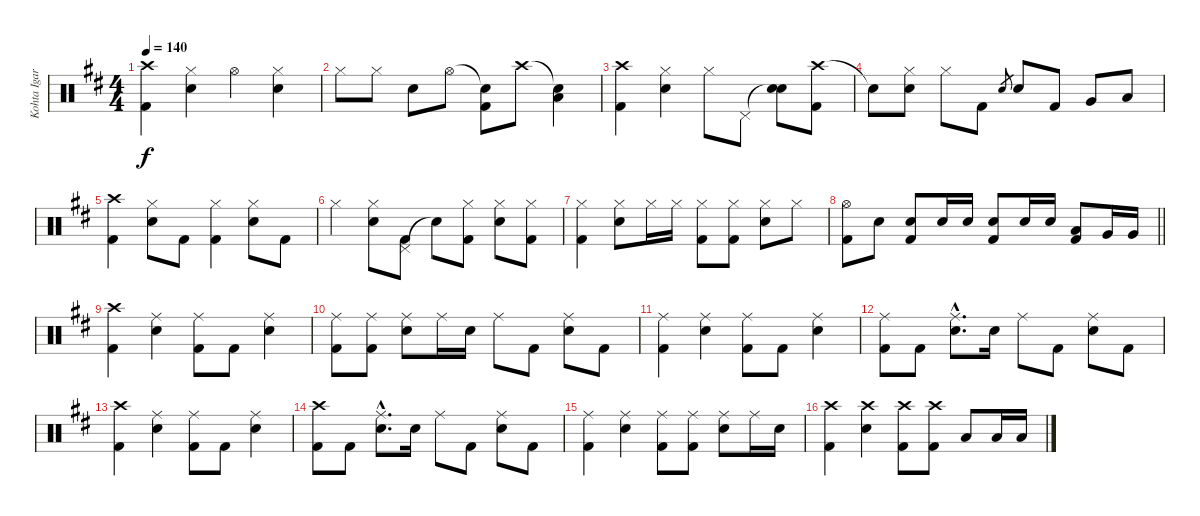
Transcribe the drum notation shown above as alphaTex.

\track ("Kohta Igarashi" "Kohta Igar") {instrument percussion}
\staff {score}
\articulation defaults
\ts (4 4)
\tempo 140
\clef neutral
\ks d
("Crash high (hit)" "Kick (hit) 2").4{dy f} ("Hi-Hat (closed)" "Electric Snare (hit)").4 "Hi-Hat (open)".4 ("Hi-Hat (closed)" "Electric Snare (hit)").4 |
"Hi-Hat (closed)".8 "Hi-Hat (closed)".8 "Electric Snare (hit)".8 "Hi-Hat (open)".8 ("Snare (hit)"{t} "Kick (hit) 2").8 "Crash high (hit)".8 ("Snare (hit)"{t} "Low Floor Tom (hit)").4 |
("Crash high (hit)" "Kick (hit) 2").4 ("Hi-Hat (closed)" "Electric Snare (hit)").4 "Hi-Hat (closed)".8 "Pedal Hi-Hat (hit)".8 ("Snare (hit)"{t} "Electric Snare (hit)").8 ("Crash high (hit)" "Kick (hit) 2").8 |
"Snare (hit)"{t}.8 ("Hi-Hat (closed)" "Electric Snare (hit)").8 "Hi-Hat (closed)".8 "Kick (hit) 2".8 "Electric Snare (hit)".8{gr} "Electric Snare (hit)".8 "Kick (hit) 2".8 "Very Low Tom (hit)".8 "Low Floor Tom (hit)".8 |
("Crash high (hit)" "Kick (hit) 2").4 ("Hi-Hat (closed)" "Electric Snare (hit)").8 "Kick (hit) 2".8 ("Hi-Hat (closed)" "Kick (hit) 2").4 ("Hi-Hat (closed)" "Electric Snare (hit)").8 "Kick (hit) 2".8 |
"Hi-Hat (closed)".4 ("Hi-Hat (closed)" "Electric Snare (hit)").8 ("Pedal Hi-Hat (hit)" "Kick (hit) 2").8 "Snare (hit)"{t}.8 ("Hi-Hat (closed)" "Kick (hit) 2").8 ("Hi-Hat (closed)" "Electric Snare (hit)").8 ("Hi-Hat (closed)" "Kick (hit) 2").8 |
("Hi-Hat (closed)" "Kick (hit) 2").4 ("Hi-Hat (closed)" "Electric Snare (hit)").8 "Hi-Hat (closed)".16 "Hi-Hat (closed)".16 ("Hi-Hat (closed)" "Kick (hit) 2").8 ("Hi-Hat (closed)" "Kick (hit) 2").8 ("Hi-Hat (closed)" "Electric Snare (hit)").8 "Hi-Hat (closed)".8 |
\barLineRight lightlight
("Hi-Hat (open)" "Kick (hit) 2").8 "Electric Snare (hit)".8 ("Electric Snare (hit)" "Kick (hit) 2").8 "Electric Snare (hit)".16 "Electric Snare (hit)".16 ("Electric Snare (hit)" "Kick (hit) 2").8 "Electric Snare (hit)".16 "Electric Snare (hit)".16 ("Low Tom (hit)" "Kick (hit) 2").8 "Very Low Tom (hit)".16 "Very Low Tom (hit)".16 |
("Crash high (hit)" "Kick (hit) 2").4 ("Ride (middle)" "Electric Snare (hit)").4 ("Ride (middle)" "Kick (hit) 2").8 "Kick (hit) 2".8 ("Ride (middle)" "Electric Snare (hit)").4 |
("Ride (middle)" "Kick (hit) 2").8 ("Ride (middle)" "Kick (hit) 2").8 ("Ride (middle)" "Electric Snare (hit)").8 "Ride (middle)".16 "Electric Snare (hit)".16 "Ride (middle)".8 "Kick (hit) 2".8 ("Ride (middle)" "Electric Snare (hit)").8 "Kick (hit) 2".8 |
("Ride (middle)" "Kick (hit) 2").4 ("Ride (middle)" "Electric Snare (hit)").4 ("Ride (middle)" "Kick (hit) 2").8 "Kick (hit) 2".8 ("Ride (middle)" "Electric Snare (hit)").4 |
("Ride (middle)" "Kick (hit) 2").8 "Kick (hit) 2".8 ("Ride (middle)"{hac} "Electric Snare (hit)"{hac}).8{d} "Electric Snare (hit)".16 "Ride (middle)".8 "Kick (hit) 2".8 ("Ride (middle)" "Electric Snare (hit)").8 "Kick (hit) 2".8 |
("Crash high (hit)" "Kick (hit) 2").4 ("Ride (middle)" "Electric Snare (hit)").4 ("Ride (middle)" "Kick (hit) 2").8 "Kick (hit) 2".8 ("Ride (middle)" "Electric Snare (hit)").4 |
("Crash high (hit)" "Kick (hit) 2").8 "Kick (hit) 2".8 ("Ride (middle)"{hac} "Electric Snare (hit)"{hac}).8{d} "Electric Snare (hit)".16 "Ride (middle)".8 "Kick (hit) 2".8 ("Ride (middle)" "Electric Snare (hit)").8 "Kick (hit) 2".8 |
("Ride (middle)" "Kick (hit) 2").4 ("Ride (middle)" "Electric Snare (hit)").4 ("Ride (middle)" "Kick (hit) 2").8 ("Ride (middle)" "Kick (hit) 2").8 ("Ride (middle)" "Electric Snare (hit)").8 "Ride (middle)".16 "Electric Snare (hit)".16 |
("Crash high (hit)" "Kick (hit) 2").4 ("Crash high (hit)" "Electric Snare (hit)").4 ("Crash high (hit)" "Kick (hit) 2").8 ("Crash high (hit)" "Kick (hit) 2").8 "Low Floor Tom (hit)".8 "Low Floor Tom (hit)".16 "Low Floor Tom (hit)".16
